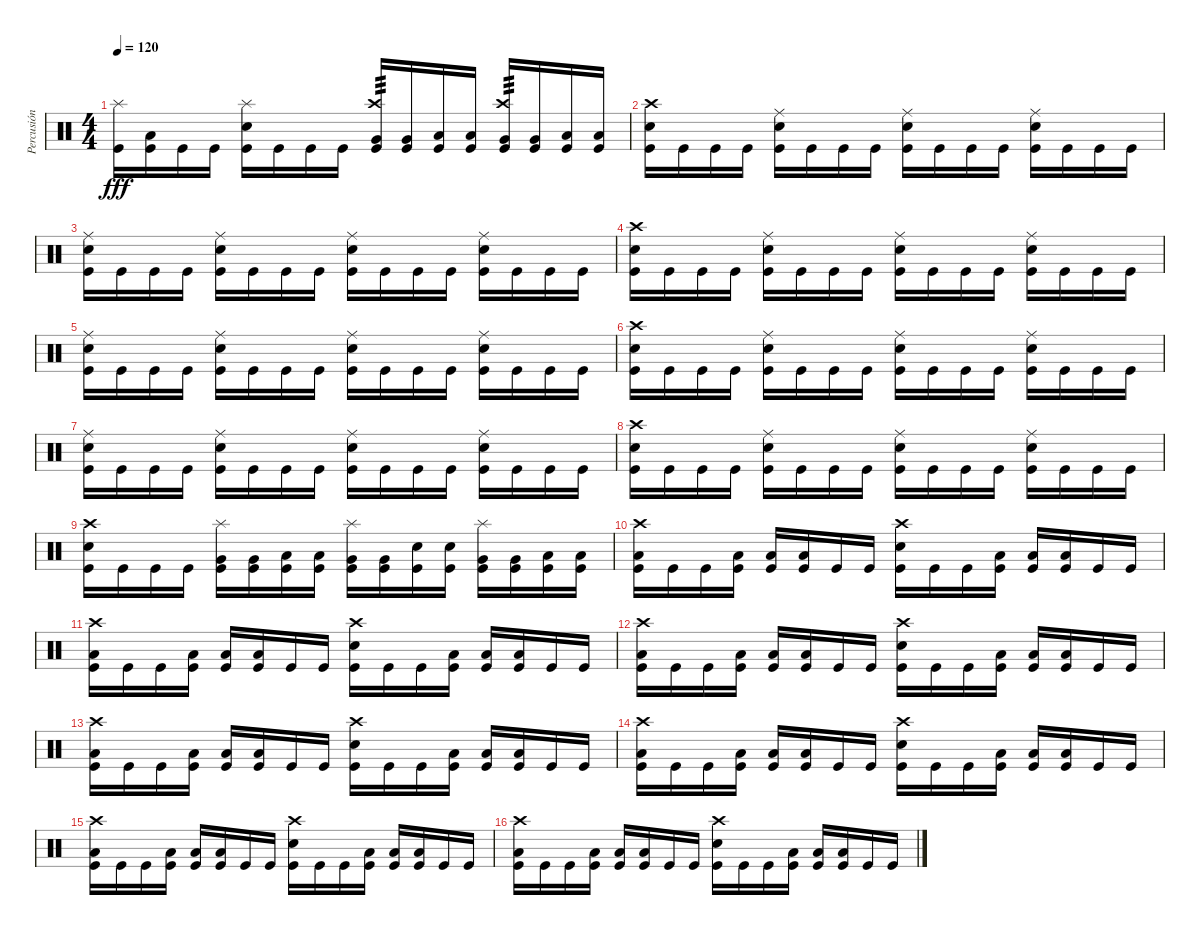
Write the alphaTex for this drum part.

\track ("Percusión" "Percusión") {instrument percussion}
\staff {score}
\articulation defaults
\ts (4 4)
\tempo 120
\clef neutral
\ks c
("Splash (hit)" "Kick (hit)").16{dy fff} ("Low Floor Tom (hit)" "Kick (hit)").16 "Kick (hit)".16 "Kick (hit)".16 ("Splash (hit)" "Snare (hit) 2" "Kick (hit)").16 "Kick (hit)".16 "Kick (hit)".16 "Kick (hit)".16 ("Crash high (hit)" "Very Low Tom (hit)" "Kick (hit)").16{tp 3} ("Very Low Tom (hit)" "Kick (hit)").16 ("Low Floor Tom (hit)" "Kick (hit)").16 ("Low Floor Tom (hit)" "Kick (hit)").16 ("Crash high (hit)" "Very Low Tom (hit)" "Kick (hit)").16{tp 3} ("Very Low Tom (hit)" "Kick (hit)").16 ("Low Floor Tom (hit)" "Kick (hit)").16 ("Low Floor Tom (hit)" "Kick (hit)").16 |
("Crash high (hit)" "Snare (hit) 2" "Kick (hit)").16 "Kick (hit)".16 "Kick (hit)".16 "Kick (hit)".16 ("Ride (middle)" "Snare (hit) 2" "Kick (hit)").16 "Kick (hit)".16 "Kick (hit)".16 "Kick (hit)".16 ("Ride (middle)" "Snare (hit) 2" "Kick (hit)").16 "Kick (hit)".16 "Kick (hit)".16 "Kick (hit)".16 ("Ride (middle)" "Snare (hit) 2" "Kick (hit)").16 "Kick (hit)".16 "Kick (hit)".16 "Kick (hit)".16 |
("Ride (middle)" "Snare (hit) 2" "Kick (hit)").16 "Kick (hit)".16 "Kick (hit)".16 "Kick (hit)".16 ("Ride (middle)" "Snare (hit) 2" "Kick (hit)").16 "Kick (hit)".16 "Kick (hit)".16 "Kick (hit)".16 ("Ride (middle)" "Snare (hit) 2" "Kick (hit)").16 "Kick (hit)".16 "Kick (hit)".16 "Kick (hit)".16 ("Ride (middle)" "Snare (hit) 2" "Kick (hit)").16 "Kick (hit)".16 "Kick (hit)".16 "Kick (hit)".16 |
("Crash high (hit)" "Snare (hit) 2" "Kick (hit)").16 "Kick (hit)".16 "Kick (hit)".16 "Kick (hit)".16 ("Ride (middle)" "Snare (hit) 2" "Kick (hit)").16 "Kick (hit)".16 "Kick (hit)".16 "Kick (hit)".16 ("Ride (middle)" "Snare (hit) 2" "Kick (hit)").16 "Kick (hit)".16 "Kick (hit)".16 "Kick (hit)".16 ("Ride (middle)" "Snare (hit) 2" "Kick (hit)").16 "Kick (hit)".16 "Kick (hit)".16 "Kick (hit)".16 |
("Ride (middle)" "Snare (hit) 2" "Kick (hit)").16 "Kick (hit)".16 "Kick (hit)".16 "Kick (hit)".16 ("Ride (middle)" "Snare (hit) 2" "Kick (hit)").16 "Kick (hit)".16 "Kick (hit)".16 "Kick (hit)".16 ("Ride (middle)" "Snare (hit) 2" "Kick (hit)").16 "Kick (hit)".16 "Kick (hit)".16 "Kick (hit)".16 ("Ride (middle)" "Snare (hit) 2" "Kick (hit)").16 "Kick (hit)".16 "Kick (hit)".16 "Kick (hit)".16 |
("Crash high (hit)" "Snare (hit) 2" "Kick (hit)").16 "Kick (hit)".16 "Kick (hit)".16 "Kick (hit)".16 ("Ride (middle)" "Snare (hit) 2" "Kick (hit)").16 "Kick (hit)".16 "Kick (hit)".16 "Kick (hit)".16 ("Ride (middle)" "Snare (hit) 2" "Kick (hit)").16 "Kick (hit)".16 "Kick (hit)".16 "Kick (hit)".16 ("Ride (middle)" "Snare (hit) 2" "Kick (hit)").16 "Kick (hit)".16 "Kick (hit)".16 "Kick (hit)".16 |
("Ride (middle)" "Snare (hit) 2" "Kick (hit)").16 "Kick (hit)".16 "Kick (hit)".16 "Kick (hit)".16 ("Ride (middle)" "Snare (hit) 2" "Kick (hit)").16 "Kick (hit)".16 "Kick (hit)".16 "Kick (hit)".16 ("Ride (middle)" "Snare (hit) 2" "Kick (hit)").16 "Kick (hit)".16 "Kick (hit)".16 "Kick (hit)".16 ("Ride (middle)" "Snare (hit) 2" "Kick (hit)").16 "Kick (hit)".16 "Kick (hit)".16 "Kick (hit)".16 |
("Crash high (hit)" "Snare (hit) 2" "Kick (hit)").16 "Kick (hit)".16 "Kick (hit)".16 "Kick (hit)".16 ("Ride (middle)" "Snare (hit) 2" "Kick (hit)").16 "Kick (hit)".16 "Kick (hit)".16 "Kick (hit)".16 ("Ride (middle)" "Snare (hit) 2" "Kick (hit)").16 "Kick (hit)".16 "Kick (hit)".16 "Kick (hit)".16 ("Ride (middle)" "Snare (hit) 2" "Kick (hit)").16 "Kick (hit)".16 "Kick (hit)".16 "Kick (hit)".16 |
("Crash high (hit)" "Snare (hit) 2" "Kick (hit)").16 "Kick (hit)".16 "Kick (hit)".16 "Kick (hit)".16 ("Splash (hit)" "Very Low Tom (hit)" "Kick (hit)").16 ("Very Low Tom (hit)" "Kick (hit)").16 ("Low Floor Tom (hit)" "Kick (hit)").16 ("Low Floor Tom (hit)" "Kick (hit)").16 ("Splash (hit)" "Very Low Tom (hit)" "Kick (hit)").16 ("Very Low Tom (hit)" "Kick (hit)").16 ("Snare (hit) 2" "Kick (hit)").16 ("Snare (hit) 2" "Kick (hit)").16 ("Splash (hit)" "Very Low Tom (hit)" "Kick (hit)").16 ("Very Low Tom (hit)" "Kick (hit)").16 ("Low Floor Tom (hit)" "Kick (hit)").16 ("Low Floor Tom (hit)" "Kick (hit)").16 |
("Crash high (hit)" "Low Floor Tom (hit)" "Kick (hit)").16 "Kick (hit)".16 "Kick (hit)".16 ("Low Floor Tom (hit)" "Kick (hit)").16 ("Low Floor Tom (hit)" "Kick (hit)").16 ("Low Floor Tom (hit)" "Kick (hit)").16 "Kick (hit)".16 "Kick (hit)".16 ("Crash high (hit)" "Snare (hit) 2" "Kick (hit)").16 "Kick (hit)".16 "Kick (hit)".16 ("Low Floor Tom (hit)" "Kick (hit)").16 ("Low Floor Tom (hit)" "Kick (hit)").16 ("Low Floor Tom (hit)" "Kick (hit)").16 "Kick (hit)".16 "Kick (hit)".16 |
("Crash high (hit)" "Low Floor Tom (hit)" "Kick (hit)").16 "Kick (hit)".16 "Kick (hit)".16 ("Low Floor Tom (hit)" "Kick (hit)").16 ("Low Floor Tom (hit)" "Kick (hit)").16 ("Low Floor Tom (hit)" "Kick (hit)").16 "Kick (hit)".16 "Kick (hit)".16 ("Crash high (hit)" "Snare (hit) 2" "Kick (hit)").16 "Kick (hit)".16 "Kick (hit)".16 ("Low Floor Tom (hit)" "Kick (hit)").16 ("Low Floor Tom (hit)" "Kick (hit)").16 ("Low Floor Tom (hit)" "Kick (hit)").16 "Kick (hit)".16 "Kick (hit)".16 |
("Crash high (hit)" "Low Floor Tom (hit)" "Kick (hit)").16 "Kick (hit)".16 "Kick (hit)".16 ("Low Floor Tom (hit)" "Kick (hit)").16 ("Low Floor Tom (hit)" "Kick (hit)").16 ("Low Floor Tom (hit)" "Kick (hit)").16 "Kick (hit)".16 "Kick (hit)".16 ("Crash high (hit)" "Snare (hit) 2" "Kick (hit)").16 "Kick (hit)".16 "Kick (hit)".16 ("Low Floor Tom (hit)" "Kick (hit)").16 ("Low Floor Tom (hit)" "Kick (hit)").16 ("Low Floor Tom (hit)" "Kick (hit)").16 "Kick (hit)".16 "Kick (hit)".16 |
("Crash high (hit)" "Low Floor Tom (hit)" "Kick (hit)").16 "Kick (hit)".16 "Kick (hit)".16 ("Low Floor Tom (hit)" "Kick (hit)").16 ("Low Floor Tom (hit)" "Kick (hit)").16 ("Low Floor Tom (hit)" "Kick (hit)").16 "Kick (hit)".16 "Kick (hit)".16 ("Crash high (hit)" "Snare (hit) 2" "Kick (hit)").16 "Kick (hit)".16 "Kick (hit)".16 ("Low Floor Tom (hit)" "Kick (hit)").16 ("Low Floor Tom (hit)" "Kick (hit)").16 ("Low Floor Tom (hit)" "Kick (hit)").16 "Kick (hit)".16 "Kick (hit)".16 |
("Crash high (hit)" "Low Floor Tom (hit)" "Kick (hit)").16 "Kick (hit)".16 "Kick (hit)".16 ("Low Floor Tom (hit)" "Kick (hit)").16 ("Low Floor Tom (hit)" "Kick (hit)").16 ("Low Floor Tom (hit)" "Kick (hit)").16 "Kick (hit)".16 "Kick (hit)".16 ("Crash high (hit)" "Snare (hit) 2" "Kick (hit)").16 "Kick (hit)".16 "Kick (hit)".16 ("Low Floor Tom (hit)" "Kick (hit)").16 ("Low Floor Tom (hit)" "Kick (hit)").16 ("Low Floor Tom (hit)" "Kick (hit)").16 "Kick (hit)".16 "Kick (hit)".16 |
("Crash high (hit)" "Low Floor Tom (hit)" "Kick (hit)").16 "Kick (hit)".16 "Kick (hit)".16 ("Low Floor Tom (hit)" "Kick (hit)").16 ("Low Floor Tom (hit)" "Kick (hit)").16 ("Low Floor Tom (hit)" "Kick (hit)").16 "Kick (hit)".16 "Kick (hit)".16 ("Crash high (hit)" "Snare (hit) 2" "Kick (hit)").16 "Kick (hit)".16 "Kick (hit)".16 ("Low Floor Tom (hit)" "Kick (hit)").16 ("Low Floor Tom (hit)" "Kick (hit)").16 ("Low Floor Tom (hit)" "Kick (hit)").16 "Kick (hit)".16 "Kick (hit)".16 |
("Crash high (hit)" "Low Floor Tom (hit)" "Kick (hit)").16 "Kick (hit)".16 "Kick (hit)".16 ("Low Floor Tom (hit)" "Kick (hit)").16 ("Low Floor Tom (hit)" "Kick (hit)").16 ("Low Floor Tom (hit)" "Kick (hit)").16 "Kick (hit)".16 "Kick (hit)".16 ("Crash high (hit)" "Snare (hit) 2" "Kick (hit)").16 "Kick (hit)".16 "Kick (hit)".16 ("Low Floor Tom (hit)" "Kick (hit)").16 ("Low Floor Tom (hit)" "Kick (hit)").16 ("Low Floor Tom (hit)" "Kick (hit)").16 "Kick (hit)".16 "Kick (hit)".16
